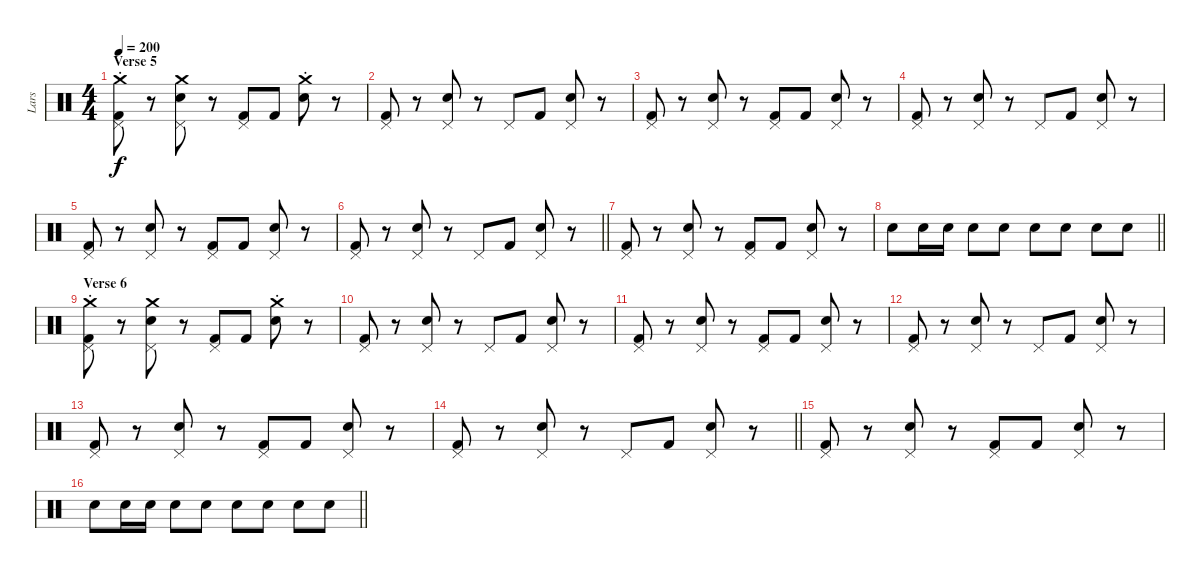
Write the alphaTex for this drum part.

\track ("Lars" "Lars") {instrument percussion}
\staff {score}
\articulation defaults
\ts (4 4)
\section ("" "Verse 5")
\tempo 200
\clef neutral
\ks c
("Crash medium (hit)"{st} "Pedal Hi-Hat (hit)" "Kick (hit) 2").8{dy f} r.8 ("Crash medium (hit)" "Pedal Hi-Hat (hit)" "Snare (hit) 2").8 r.8 ("Pedal Hi-Hat (hit)" "Kick (hit) 2").8 "Kick (hit) 2".8 ("Crash medium (hit)"{st} "Snare (hit) 2").8 r.8 |
("Pedal Hi-Hat (hit)" "Kick (hit) 2").8 r.8 ("Pedal Hi-Hat (hit)" "Snare (hit) 2").8 r.8 "Pedal Hi-Hat (hit)".8 "Kick (hit) 2".8 ("Pedal Hi-Hat (hit)" "Snare (hit) 2").8 r.8 |
("Pedal Hi-Hat (hit)" "Kick (hit) 2").8 r.8 ("Pedal Hi-Hat (hit)" "Snare (hit) 2").8 r.8 ("Pedal Hi-Hat (hit)" "Kick (hit) 2").8 "Kick (hit) 2".8 ("Pedal Hi-Hat (hit)" "Snare (hit) 2").8 r.8 |
("Pedal Hi-Hat (hit)" "Kick (hit) 2").8 r.8 ("Pedal Hi-Hat (hit)" "Snare (hit) 2").8 r.8 "Pedal Hi-Hat (hit)".8 "Kick (hit) 2".8 ("Pedal Hi-Hat (hit)" "Snare (hit) 2").8 r.8 |
("Pedal Hi-Hat (hit)" "Kick (hit) 2").8 r.8 ("Pedal Hi-Hat (hit)" "Snare (hit) 2").8 r.8 ("Pedal Hi-Hat (hit)" "Kick (hit) 2").8 "Kick (hit) 2".8 ("Pedal Hi-Hat (hit)" "Snare (hit) 2").8 r.8 |
\barLineRight lightlight
("Pedal Hi-Hat (hit)" "Kick (hit) 2").8 r.8 ("Pedal Hi-Hat (hit)" "Snare (hit) 2").8 r.8 "Pedal Hi-Hat (hit)".8 "Kick (hit) 2".8 ("Pedal Hi-Hat (hit)" "Snare (hit) 2").8 r.8 |
("Pedal Hi-Hat (hit)" "Kick (hit) 2").8 r.8 ("Pedal Hi-Hat (hit)" "Snare (hit) 2").8 r.8 ("Pedal Hi-Hat (hit)" "Kick (hit) 2").8 "Kick (hit) 2".8 ("Pedal Hi-Hat (hit)" "Snare (hit) 2").8 r.8 |
\barLineRight lightlight "Snare (hit) 2".8 "Snare (hit) 2".16 "Snare (hit) 2".16 "Snare (hit) 2".8 "Snare (hit) 2".8 "Snare (hit) 2".8 "Snare (hit) 2".8 "Snare (hit) 2".8 "Snare (hit) 2".8
|
\section ("" "Verse 6")
("Crash medium (hit)"{st} "Pedal Hi-Hat (hit)" "Kick (hit) 2").8 r.8 ("Crash medium (hit)" "Pedal Hi-Hat (hit)" "Snare (hit) 2").8 r.8 ("Pedal Hi-Hat (hit)" "Kick (hit) 2").8 "Kick (hit) 2".8 ("Crash medium (hit)"{st} "Snare (hit) 2").8 r.8 |
("Pedal Hi-Hat (hit)" "Kick (hit) 2").8 r.8 ("Pedal Hi-Hat (hit)" "Snare (hit) 2").8 r.8 "Pedal Hi-Hat (hit)".8 "Kick (hit) 2".8 ("Pedal Hi-Hat (hit)" "Snare (hit) 2").8 r.8 |
("Pedal Hi-Hat (hit)" "Kick (hit) 2").8 r.8 ("Pedal Hi-Hat (hit)" "Snare (hit) 2").8 r.8 ("Pedal Hi-Hat (hit)" "Kick (hit) 2").8 "Kick (hit) 2".8 ("Pedal Hi-Hat (hit)" "Snare (hit) 2").8 r.8 |
("Pedal Hi-Hat (hit)" "Kick (hit) 2").8 r.8 ("Pedal Hi-Hat (hit)" "Snare (hit) 2").8 r.8 "Pedal Hi-Hat (hit)".8 "Kick (hit) 2".8 ("Pedal Hi-Hat (hit)" "Snare (hit) 2").8 r.8 |
("Pedal Hi-Hat (hit)" "Kick (hit) 2").8 r.8 ("Pedal Hi-Hat (hit)" "Snare (hit) 2").8 r.8 ("Pedal Hi-Hat (hit)" "Kick (hit) 2").8 "Kick (hit) 2".8 ("Pedal Hi-Hat (hit)" "Snare (hit) 2").8 r.8 |
\barLineRight lightlight
("Pedal Hi-Hat (hit)" "Kick (hit) 2").8 r.8 ("Pedal Hi-Hat (hit)" "Snare (hit) 2").8 r.8 "Pedal Hi-Hat (hit)".8 "Kick (hit) 2".8 ("Pedal Hi-Hat (hit)" "Snare (hit) 2").8 r.8 |
("Pedal Hi-Hat (hit)" "Kick (hit) 2").8 r.8 ("Pedal Hi-Hat (hit)" "Snare (hit) 2").8 r.8 ("Pedal Hi-Hat (hit)" "Kick (hit) 2").8 "Kick (hit) 2".8 ("Pedal Hi-Hat (hit)" "Snare (hit) 2").8 r.8 |
\barLineRight lightlight "Snare (hit) 2".8 "Snare (hit) 2".16 "Snare (hit) 2".16 "Snare (hit) 2".8 "Snare (hit) 2".8 "Snare (hit) 2".8 "Snare (hit) 2".8 "Snare (hit) 2".8 "Snare (hit) 2".8
